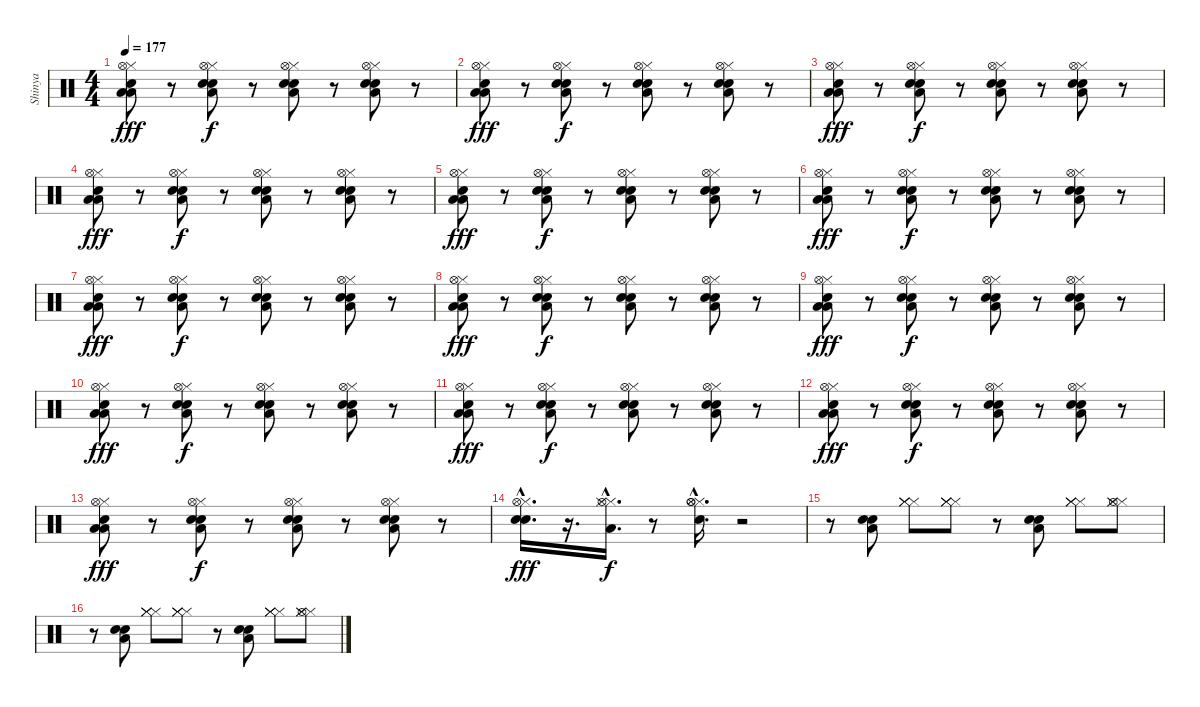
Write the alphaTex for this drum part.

\track ("Shinya " "Shinya ") {instrument percussion}
\staff {score}
\articulation defaults
\ts (4 4)
\tempo 177
\clef neutral
\ks c
("Hi-Hat (closed)" "Electric Snare (hit)" "Low Tom (hit)" "Hi-Hat (open)" "Low Tom (hit)").8{dy fff} r.8 ("Hi-Hat (closed)" "Electric Snare (hit)" "Low Tom (hit)" "Hi-Hat (open)" "Snare (hit) 2").8{dy f} r.8 ("Hi-Hat (closed)" "Electric Snare (hit)" "Hi-Hat (open)" "Snare (hit) 2" "Low Tom (hit)").8 r.8 ("Hi-Hat (closed)" "Hi-Hat (open)" "Electric Snare (hit)" "Electric Snare (hit)" "Low Tom (hit)").8 r.8 |
("Hi-Hat (closed)" "Electric Snare (hit)" "Low Tom (hit)" "Hi-Hat (open)" "Low Tom (hit)").8{dy fff} r.8 ("Hi-Hat (closed)" "Electric Snare (hit)" "Low Tom (hit)" "Hi-Hat (open)" "Snare (hit) 2").8{dy f} r.8 ("Hi-Hat (closed)" "Electric Snare (hit)" "Hi-Hat (open)" "Snare (hit) 2" "Low Tom (hit)").8 r.8 ("Hi-Hat (closed)" "Electric Snare (hit)" "Electric Snare (hit)" "Hi-Hat (open)" "Low Tom (hit)").8 r.8 |
("Hi-Hat (closed)" "Electric Snare (hit)" "Low Tom (hit)" "Hi-Hat (open)" "Low Tom (hit)").8{dy fff} r.8 ("Hi-Hat (closed)" "Electric Snare (hit)" "Low Tom (hit)" "Hi-Hat (open)" "Snare (hit) 2").8{dy f} r.8 ("Hi-Hat (closed)" "Electric Snare (hit)" "Hi-Hat (open)" "Snare (hit) 2" "Low Tom (hit)").8 r.8 ("Hi-Hat (closed)" "Electric Snare (hit)" "Electric Snare (hit)" "Low Tom (hit)" "Hi-Hat (open)").8 r.8 |
("Hi-Hat (closed)" "Electric Snare (hit)" "Low Tom (hit)" "Hi-Hat (open)" "Low Tom (hit)").8{dy fff} r.8 ("Hi-Hat (closed)" "Electric Snare (hit)" "Low Tom (hit)" "Hi-Hat (open)" "Snare (hit) 2").8{dy f} r.8 ("Hi-Hat (closed)" "Electric Snare (hit)" "Hi-Hat (open)" "Snare (hit) 2" "Low Tom (hit)").8 r.8 ("Hi-Hat (closed)" "Hi-Hat (open)" "Electric Snare (hit)" "Electric Snare (hit)" "Low Tom (hit)").8 r.8 |
("Hi-Hat (closed)" "Electric Snare (hit)" "Low Tom (hit)" "Hi-Hat (open)" "Low Tom (hit)").8{dy fff} r.8 ("Hi-Hat (closed)" "Electric Snare (hit)" "Low Tom (hit)" "Hi-Hat (open)" "Snare (hit) 2").8{dy f} r.8 ("Hi-Hat (closed)" "Electric Snare (hit)" "Hi-Hat (open)" "Snare (hit) 2" "Low Tom (hit)").8 r.8 ("Hi-Hat (closed)" "Electric Snare (hit)" "Electric Snare (hit)" "Hi-Hat (open)" "Low Tom (hit)").8 r.8 |
("Hi-Hat (closed)" "Electric Snare (hit)" "Low Tom (hit)" "Hi-Hat (open)" "Low Tom (hit)").8{dy fff} r.8 ("Hi-Hat (closed)" "Electric Snare (hit)" "Low Tom (hit)" "Hi-Hat (open)" "Snare (hit) 2").8{dy f} r.8 ("Hi-Hat (closed)" "Electric Snare (hit)" "Hi-Hat (open)" "Snare (hit) 2" "Low Tom (hit)").8 r.8 ("Hi-Hat (closed)" "Electric Snare (hit)" "Electric Snare (hit)" "Low Tom (hit)" "Hi-Hat (open)").8 r.8 |
("Hi-Hat (closed)" "Electric Snare (hit)" "Low Tom (hit)" "Hi-Hat (open)" "Low Tom (hit)").8{dy fff} r.8 ("Hi-Hat (closed)" "Electric Snare (hit)" "Low Tom (hit)" "Hi-Hat (open)" "Snare (hit) 2").8{dy f} r.8 ("Hi-Hat (closed)" "Electric Snare (hit)" "Hi-Hat (open)" "Snare (hit) 2" "Low Tom (hit)").8 r.8 ("Hi-Hat (closed)" "Hi-Hat (open)" "Electric Snare (hit)" "Electric Snare (hit)" "Low Tom (hit)").8 r.8 |
("Hi-Hat (closed)" "Electric Snare (hit)" "Low Tom (hit)" "Hi-Hat (open)" "Low Tom (hit)").8{dy fff} r.8 ("Hi-Hat (closed)" "Electric Snare (hit)" "Low Tom (hit)" "Hi-Hat (open)" "Snare (hit) 2").8{dy f} r.8 ("Hi-Hat (closed)" "Electric Snare (hit)" "Hi-Hat (open)" "Snare (hit) 2" "Low Tom (hit)").8 r.8 ("Hi-Hat (closed)" "Electric Snare (hit)" "Electric Snare (hit)" "Hi-Hat (open)" "Low Tom (hit)").8 r.8 |
("Hi-Hat (closed)" "Electric Snare (hit)" "Low Tom (hit)" "Hi-Hat (open)" "Low Tom (hit)").8{dy fff} r.8 ("Hi-Hat (closed)" "Electric Snare (hit)" "Low Tom (hit)" "Hi-Hat (open)" "Snare (hit) 2").8{dy f} r.8 ("Hi-Hat (closed)" "Electric Snare (hit)" "Hi-Hat (open)" "Snare (hit) 2" "Low Tom (hit)").8 r.8 ("Hi-Hat (closed)" "Electric Snare (hit)" "Electric Snare (hit)" "Low Tom (hit)" "Hi-Hat (open)").8 r.8 |
("Hi-Hat (closed)" "Electric Snare (hit)" "Low Tom (hit)" "Hi-Hat (open)" "Low Tom (hit)").8{dy fff} r.8 ("Hi-Hat (closed)" "Electric Snare (hit)" "Low Tom (hit)" "Hi-Hat (open)" "Snare (hit) 2").8{dy f} r.8 ("Hi-Hat (closed)" "Electric Snare (hit)" "Hi-Hat (open)" "Snare (hit) 2" "Low Tom (hit)").8 r.8 ("Hi-Hat (closed)" "Hi-Hat (open)" "Electric Snare (hit)" "Electric Snare (hit)" "Low Tom (hit)").8 r.8 |
("Hi-Hat (closed)" "Electric Snare (hit)" "Low Tom (hit)" "Hi-Hat (open)" "Low Tom (hit)").8{dy fff} r.8 ("Hi-Hat (closed)" "Electric Snare (hit)" "Low Tom (hit)" "Hi-Hat (open)" "Snare (hit) 2").8{dy f} r.8 ("Hi-Hat (closed)" "Electric Snare (hit)" "Hi-Hat (open)" "Snare (hit) 2" "Low Tom (hit)").8 r.8 ("Hi-Hat (closed)" "Electric Snare (hit)" "Electric Snare (hit)" "Hi-Hat (open)" "Low Tom (hit)").8 r.8 |
("Hi-Hat (closed)" "Electric Snare (hit)" "Low Tom (hit)" "Hi-Hat (open)" "Low Tom (hit)").8{dy fff} r.8 ("Hi-Hat (closed)" "Electric Snare (hit)" "Low Tom (hit)" "Hi-Hat (open)" "Snare (hit) 2").8{dy f} r.8 ("Hi-Hat (closed)" "Electric Snare (hit)" "Hi-Hat (open)" "Snare (hit) 2" "Low Tom (hit)").8 r.8 ("Hi-Hat (closed)" "Electric Snare (hit)" "Electric Snare (hit)" "Low Tom (hit)" "Hi-Hat (open)").8 r.8 |
("Hi-Hat (closed)" "Electric Snare (hit)" "Low Tom (hit)" "Hi-Hat (open)" "Low Tom (hit)").8{dy fff} r.8 ("Hi-Hat (closed)" "Electric Snare (hit)" "Low Tom (hit)" "Hi-Hat (open)" "Snare (hit) 2").8{dy f} r.8 ("Hi-Hat (closed)" "Electric Snare (hit)" "Hi-Hat (open)" "Snare (hit) 2" "Low Tom (hit)").8 r.8 ("Hi-Hat (closed)" "Hi-Hat (open)" "Electric Snare (hit)" "Electric Snare (hit)" "Low Tom (hit)").8 r.8 |
("Hi-Hat (closed)"{hac} "Electric Snare (hit)"{hac} "Electric Snare (hit)"{hac} "Hi-Hat (open)"{hac}).16{d dy fff} r.16{d} ("Hi-Hat (closed)"{hac} "Hi-Hat (closed)"{hac} "Low Tom (hit)"{hac} "Hi-Hat (open)"{hac}).16{d dy f} r.8 ("Hi-Hat (closed)"{hac} "Electric Snare (hit)"{hac} "Hi-Hat (open)"{hac} "Hi-Hat (open)"{hac}).16{d} r.2 |
r.8 ("Electric Snare (hit)" "Low Tom (hit)" "Electric Snare (hit)").8 ("Hi-Hat (closed)" "Hi-Hat (closed)" "Hi-Hat (closed)" "Hi-Hat (closed)").8 ("Hi-Hat (closed)" "Hi-Hat (closed)" "Hi-Hat (closed)" "Hi-Hat (closed)").8 r.8 ("Electric Snare (hit)" "Low Tom (hit)" "Electric Snare (hit)").8 ("Hi-Hat (closed)" "Hi-Hat (closed)" "Hi-Hat (closed)" "Hi-Hat (closed)").8 ("Hi-Hat (closed)" "Hi-Hat (closed)" "Hi-Hat (closed)" "Hi-Hat (open)").8 |
r.8 ("Electric Snare (hit)" "Low Tom (hit)" "Electric Snare (hit)").8 ("Hi-Hat (closed)" "Hi-Hat (closed)" "Hi-Hat (closed)" "Hi-Hat (closed)").8 ("Hi-Hat (closed)" "Hi-Hat (closed)" "Hi-Hat (closed)" "Hi-Hat (closed)").8 r.8 ("Electric Snare (hit)" "Low Tom (hit)" "Electric Snare (hit)").8 ("Hi-Hat (closed)" "Hi-Hat (closed)" "Hi-Hat (closed)" "Hi-Hat (closed)").8 ("Hi-Hat (closed)" "Hi-Hat (closed)" "Hi-Hat (closed)" "Hi-Hat (open)").8
